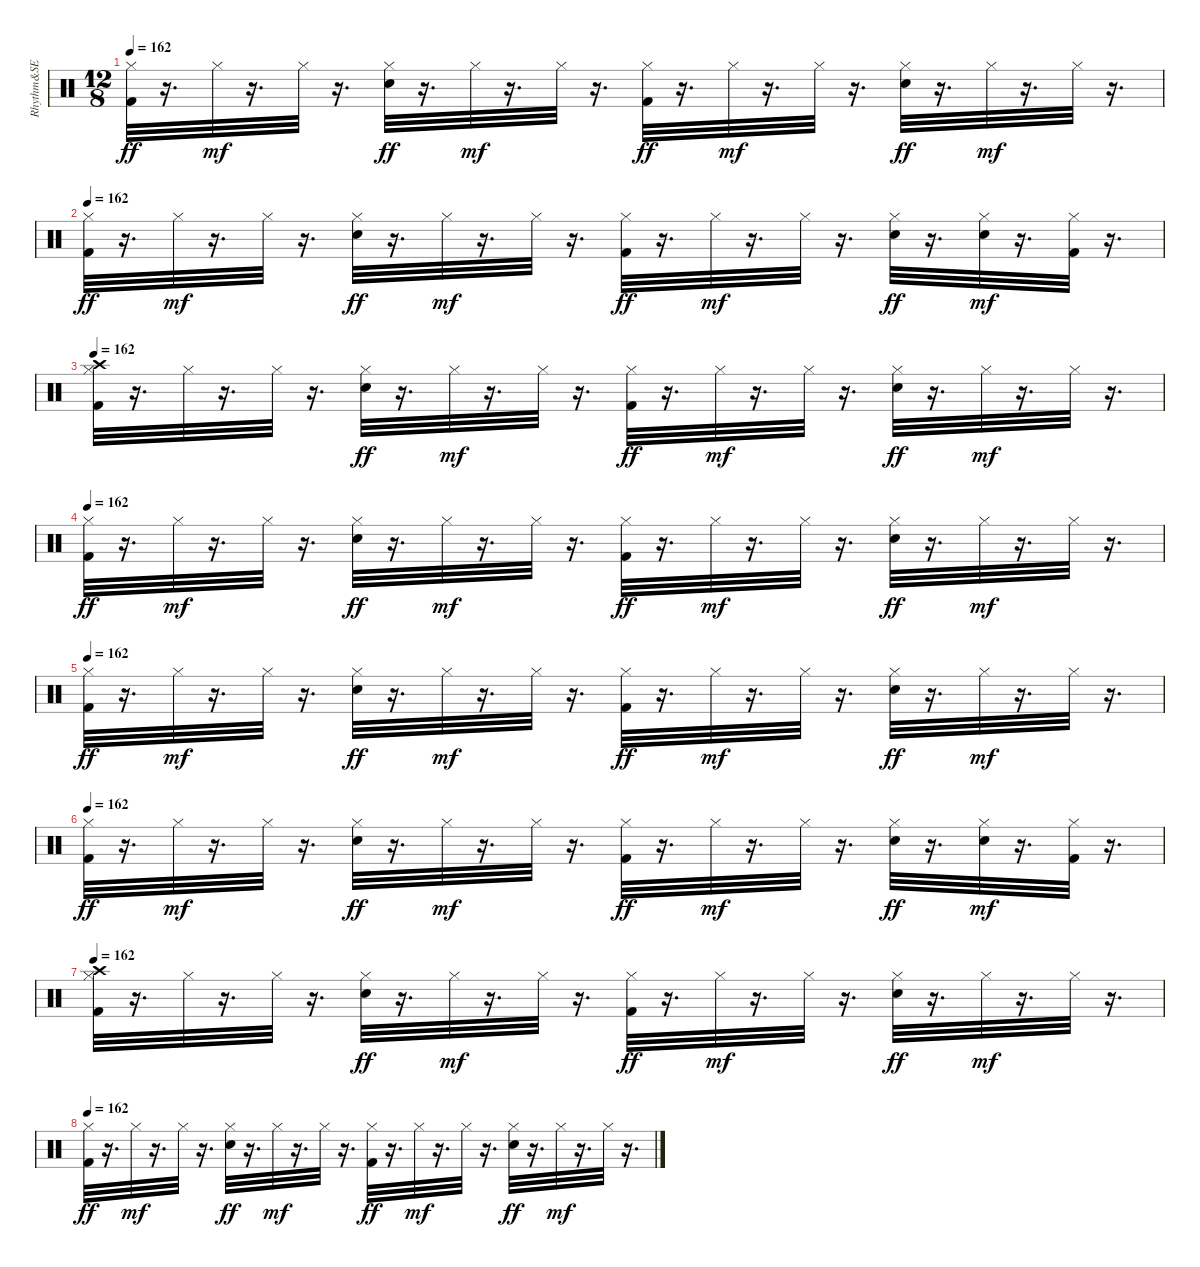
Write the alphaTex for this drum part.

\track ("Rhythm&SE" "Rhythm&SE") {instrument percussion}
\staff {score}
\articulation defaults
\ts (12 8)
\tempo 162
\clef neutral
\ks c
("Kick (hit) 2" "Hi-Hat (closed)").32{dy ff volume 14 balance 8} r.16{d} "Hi-Hat (closed)".32{dy mf} r.16{d} "Hi-Hat (closed)".32{volume 14} r.16{d} ("Snare (hit) 2" "Hi-Hat (closed)").32{dy ff} r.16{d} "Hi-Hat (closed)".32{dy mf} r.16{d} "Hi-Hat (closed)".32 r.16{d} ("Kick (hit) 2" "Hi-Hat (closed)").32{dy ff} r.16{d} "Hi-Hat (closed)".32{dy mf} r.16{d} "Hi-Hat (closed)".32 r.16{d} ("Snare (hit) 2" "Hi-Hat (closed)").32{dy ff} r.16{d} "Hi-Hat (closed)".32{dy mf} r.16{d} "Hi-Hat (closed)".32 r.16{d} |
\tempo 162
("Kick (hit) 2" "Hi-Hat (closed)").32{dy ff volume 14 balance 8} r.16{d} "Hi-Hat (closed)".32{dy mf} r.16{d} "Hi-Hat (closed)".32{volume 14} r.16{d} ("Snare (hit) 2" "Hi-Hat (closed)").32{dy ff} r.16{d} "Hi-Hat (closed)".32{dy mf} r.16{d} "Hi-Hat (closed)".32 r.16{d} ("Kick (hit) 2" "Hi-Hat (closed)").32{dy ff} r.16{d} "Hi-Hat (closed)".32{dy mf} r.16{d} "Hi-Hat (closed)".32 r.16{d} ("Snare (hit) 2" "Hi-Hat (closed)").32{dy ff} r.16{d} ("Snare (hit) 2" "Hi-Hat (closed)").32{dy mf} r.16{d} ("Kick (hit) 2" "Hi-Hat (closed)").32 r.16{d} |
\tempo 162
("Kick (hit) 2" "Hi-Hat (closed)" "Crash high (hit)").32{volume 14 balance 8} r.16{d} "Hi-Hat (closed)".32 r.16{d} "Hi-Hat (closed)".32{volume 14} r.16{d} ("Snare (hit) 2" "Hi-Hat (closed)").32{dy ff} r.16{d} "Hi-Hat (closed)".32{dy mf} r.16{d} "Hi-Hat (closed)".32 r.16{d} ("Kick (hit) 2" "Hi-Hat (closed)").32{dy ff} r.16{d} "Hi-Hat (closed)".32{dy mf} r.16{d} "Hi-Hat (closed)".32 r.16{d} ("Snare (hit) 2" "Hi-Hat (closed)").32{dy ff} r.16{d} "Hi-Hat (closed)".32{dy mf} r.16{d} "Hi-Hat (closed)".32 r.16{d} |
\tempo 162
("Kick (hit) 2" "Hi-Hat (closed)").32{dy ff volume 14 balance 8} r.16{d} "Hi-Hat (closed)".32{dy mf} r.16{d} "Hi-Hat (closed)".32{volume 14} r.16{d} ("Snare (hit) 2" "Hi-Hat (closed)").32{dy ff} r.16{d} "Hi-Hat (closed)".32{dy mf} r.16{d} "Hi-Hat (closed)".32 r.16{d} ("Kick (hit) 2" "Hi-Hat (closed)").32{dy ff} r.16{d} "Hi-Hat (closed)".32{dy mf} r.16{d} "Hi-Hat (closed)".32 r.16{d} ("Snare (hit) 2" "Hi-Hat (closed)").32{dy ff} r.16{d} "Hi-Hat (closed)".32{dy mf} r.16{d} "Hi-Hat (closed)".32 r.16{d} |
\tempo 162
("Kick (hit) 2" "Hi-Hat (closed)").32{dy ff volume 14 balance 8} r.16{d} "Hi-Hat (closed)".32{dy mf} r.16{d} "Hi-Hat (closed)".32{volume 14} r.16{d} ("Snare (hit) 2" "Hi-Hat (closed)").32{dy ff} r.16{d} "Hi-Hat (closed)".32{dy mf} r.16{d} "Hi-Hat (closed)".32 r.16{d} ("Kick (hit) 2" "Hi-Hat (closed)").32{dy ff} r.16{d} "Hi-Hat (closed)".32{dy mf} r.16{d} "Hi-Hat (closed)".32 r.16{d} ("Snare (hit) 2" "Hi-Hat (closed)").32{dy ff} r.16{d} "Hi-Hat (closed)".32{dy mf} r.16{d} "Hi-Hat (closed)".32 r.16{d} |
\tempo 162
("Kick (hit) 2" "Hi-Hat (closed)").32{dy ff volume 14 balance 8} r.16{d} "Hi-Hat (closed)".32{dy mf} r.16{d} "Hi-Hat (closed)".32{volume 14} r.16{d} ("Snare (hit) 2" "Hi-Hat (closed)").32{dy ff} r.16{d} "Hi-Hat (closed)".32{dy mf} r.16{d} "Hi-Hat (closed)".32 r.16{d} ("Kick (hit) 2" "Hi-Hat (closed)").32{dy ff} r.16{d} "Hi-Hat (closed)".32{dy mf} r.16{d} "Hi-Hat (closed)".32 r.16{d} ("Snare (hit) 2" "Hi-Hat (closed)").32{dy ff} r.16{d} ("Snare (hit) 2" "Hi-Hat (closed)").32{dy mf} r.16{d} ("Kick (hit) 2" "Hi-Hat (closed)").32 r.16{d} |
\tempo 162
("Kick (hit) 2" "Hi-Hat (closed)" "Crash high (hit)").32{volume 14 balance 8} r.16{d} "Hi-Hat (closed)".32 r.16{d} "Hi-Hat (closed)".32{volume 14} r.16{d} ("Snare (hit) 2" "Hi-Hat (closed)").32{dy ff} r.16{d} "Hi-Hat (closed)".32{dy mf} r.16{d} "Hi-Hat (closed)".32 r.16{d} ("Kick (hit) 2" "Hi-Hat (closed)").32{dy ff} r.16{d} "Hi-Hat (closed)".32{dy mf} r.16{d} "Hi-Hat (closed)".32 r.16{d} ("Snare (hit) 2" "Hi-Hat (closed)").32{dy ff} r.16{d} "Hi-Hat (closed)".32{dy mf} r.16{d} "Hi-Hat (closed)".32 r.16{d} |
\tempo 162
("Kick (hit) 2" "Hi-Hat (closed)").32{dy ff volume 14 balance 8} r.16{d} "Hi-Hat (closed)".32{dy mf} r.16{d} "Hi-Hat (closed)".32{volume 14} r.16{d} ("Snare (hit) 2" "Hi-Hat (closed)").32{dy ff} r.16{d} "Hi-Hat (closed)".32{dy mf} r.16{d} "Hi-Hat (closed)".32 r.16{d} ("Kick (hit) 2" "Hi-Hat (closed)").32{dy ff} r.16{d} "Hi-Hat (closed)".32{dy mf} r.16{d} "Hi-Hat (closed)".32 r.16{d} ("Snare (hit) 2" "Hi-Hat (closed)").32{dy ff} r.16{d} "Hi-Hat (closed)".32{dy mf} r.16{d} "Hi-Hat (closed)".32 r.16{d}
